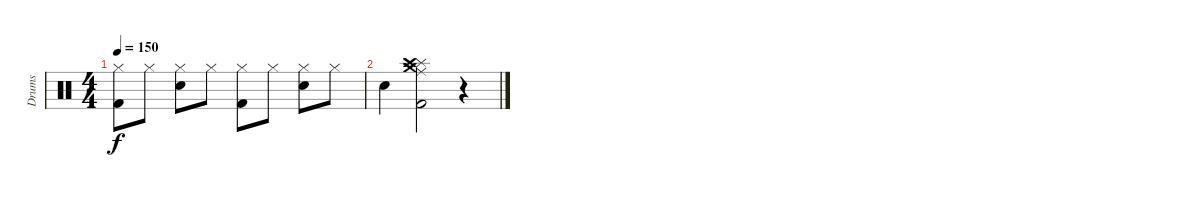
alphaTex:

\track ("Drums" "Drums") {instrument percussion}
\staff {score}
\articulation defaults
\ts (4 4)
\tempo 150
\clef neutral
\ks c
("Kick (hit) 2" "Hi-Hat (closed)").8{dy f} "Hi-Hat (closed)".8 ("Snare (hit) 2" "Hi-Hat (closed)").8 "Hi-Hat (closed)".8 ("Kick (hit) 2" "Hi-Hat (closed)").8 "Hi-Hat (closed)".8 ("Snare (hit) 2" "Hi-Hat (closed)").8 "Hi-Hat (closed)".8 |
"Snare (hit) 2".4 ("Splash (hit)" "Crash high (hit)" "Ride (middle)" "Crash medium (hit)" "Kick (hit) 2").2 r.4
